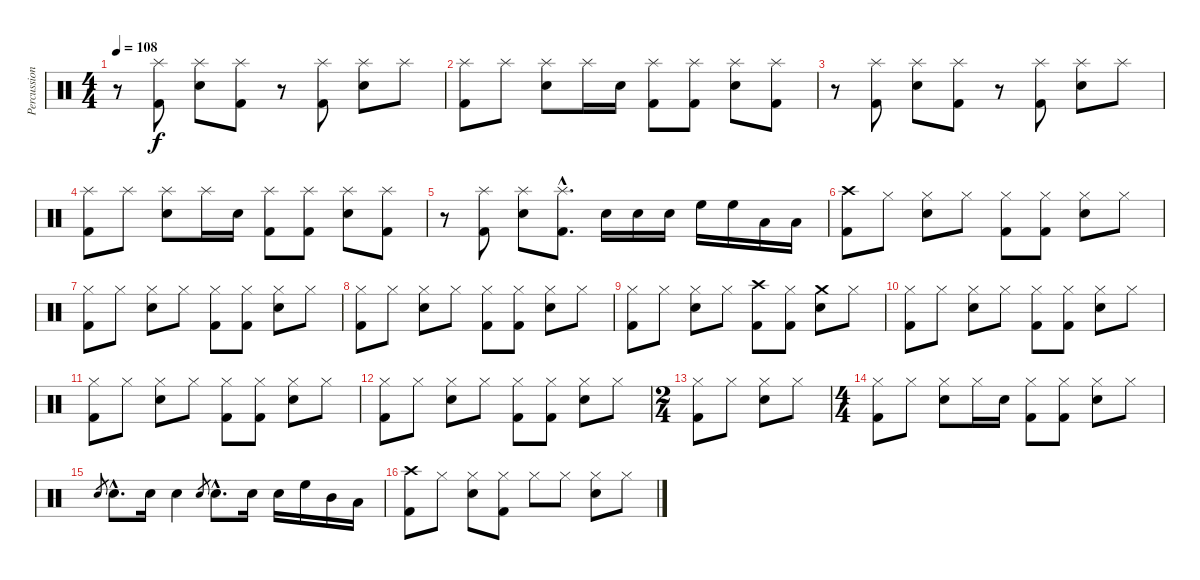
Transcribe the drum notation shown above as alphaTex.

\track ("Percussion" "Percussion") {instrument percussion}
\staff {score}
\articulation defaults
\ts (4 4)
\tempo 108
\clef neutral
\ks c
r.8{dy f} ("Kick (hit) 2" "Splash (hit)").8 ("Snare (hit) 2" "Splash (hit)").8 ("Kick (hit) 2" "Splash (hit)").8 r.8 ("Kick (hit) 2" "Splash (hit)").8 ("Snare (hit) 2" "Splash (hit)").8 "Splash (hit)".8 |
("Kick (hit) 2" "Splash (hit)").8 "Splash (hit)".8 ("Snare (hit) 2" "Splash (hit)").8 "Splash (hit)".16 "Snare (hit) 2".16 ("Kick (hit) 2" "Splash (hit)").8 ("Kick (hit) 2" "Splash (hit)").8 ("Snare (hit) 2" "Splash (hit)").8 ("Kick (hit) 2" "Splash (hit)").8 |
r.8 ("Kick (hit) 2" "Splash (hit)").8 ("Snare (hit) 2" "Splash (hit)").8 ("Kick (hit) 2" "Splash (hit)").8 r.8 ("Kick (hit) 2" "Splash (hit)").8 ("Snare (hit) 2" "Splash (hit)").8 "Splash (hit)".8 |
("Kick (hit) 2" "Splash (hit)").8 "Splash (hit)".8 ("Snare (hit) 2" "Splash (hit)").8 "Splash (hit)".16 "Snare (hit) 2".16 ("Kick (hit) 2" "Splash (hit)").8 ("Kick (hit) 2" "Splash (hit)").8 ("Snare (hit) 2" "Splash (hit)").8 ("Kick (hit) 2" "Splash (hit)").8 |
r.8 ("Kick (hit) 2" "Splash (hit)").8 ("Snare (hit) 2" "Splash (hit)").8 ("Kick (hit) 2"{hac} "Splash (hit)"{hac}).8{d} "Snare (hit) 2".16 "Snare (hit) 2".16 "Snare (hit) 2".16 "High Floor Tom (hit)".16 "High Floor Tom (hit)".16 "Low Tom (hit)".16 "Low Tom (hit)".16 |
("Kick (hit) 2" "Crash high (hit)").8 "Hi-Hat (closed)".8 ("Snare (hit) 2" "Hi-Hat (closed)").8 "Hi-Hat (closed)".8 ("Kick (hit) 2" "Hi-Hat (closed)").8 ("Kick (hit) 2" "Hi-Hat (closed)").8 ("Snare (hit) 2" "Hi-Hat (closed)").8 "Hi-Hat (closed)".8 |
("Kick (hit) 2" "Hi-Hat (closed)").8 "Hi-Hat (closed)".8 ("Snare (hit) 2" "Hi-Hat (closed)").8 "Hi-Hat (closed)".8 ("Kick (hit) 2" "Hi-Hat (closed)").8 ("Kick (hit) 2" "Hi-Hat (closed)").8 ("Snare (hit) 2" "Hi-Hat (closed)").8 "Hi-Hat (closed)".8 |
("Kick (hit) 2" "Hi-Hat (closed)").8 "Hi-Hat (closed)".8 ("Snare (hit) 2" "Hi-Hat (closed)").8 "Hi-Hat (closed)".8 ("Kick (hit) 2" "Hi-Hat (closed)").8 ("Kick (hit) 2" "Hi-Hat (closed)").8 ("Snare (hit) 2" "Hi-Hat (closed)").8 "Hi-Hat (closed)".8 |
("Kick (hit) 2" "Hi-Hat (closed)").8 "Hi-Hat (closed)".8 ("Snare (hit) 2" "Hi-Hat (closed)").8 "Hi-Hat (closed)".8 ("Kick (hit) 2" "Crash high (hit)").8 ("Kick (hit) 2" "Hi-Hat (closed)").8 ("Snare (hit) 2" "Crash medium (hit)").8 "Hi-Hat (closed)".8 |
("Kick (hit) 2" "Hi-Hat (closed)").8 "Hi-Hat (closed)".8 ("Snare (hit) 2" "Hi-Hat (closed)").8 "Hi-Hat (closed)".8 ("Kick (hit) 2" "Hi-Hat (closed)").8 ("Kick (hit) 2" "Hi-Hat (closed)").8 ("Snare (hit) 2" "Hi-Hat (closed)").8 "Hi-Hat (closed)".8 |
("Kick (hit) 2" "Hi-Hat (closed)").8 "Hi-Hat (closed)".8 ("Snare (hit) 2" "Hi-Hat (closed)").8 "Hi-Hat (closed)".8 ("Kick (hit) 2" "Hi-Hat (closed)").8 ("Kick (hit) 2" "Hi-Hat (closed)").8 ("Snare (hit) 2" "Hi-Hat (closed)").8 "Hi-Hat (closed)".8 |
("Kick (hit) 2" "Hi-Hat (closed)").8 "Hi-Hat (closed)".8 ("Snare (hit) 2" "Hi-Hat (closed)").8 "Hi-Hat (closed)".8 ("Kick (hit) 2" "Hi-Hat (closed)").8 ("Kick (hit) 2" "Hi-Hat (closed)").8 ("Snare (hit) 2" "Hi-Hat (closed)").8 "Hi-Hat (closed)".8 |
\ts (2 4)
("Kick (hit) 2" "Hi-Hat (closed)").8 "Hi-Hat (closed)".8 ("Snare (hit) 2" "Hi-Hat (closed)").8 "Hi-Hat (closed)".8 |
\ts (4 4)
("Kick (hit) 2" "Hi-Hat (closed)").8 "Hi-Hat (closed)".8 ("Snare (hit) 2" "Hi-Hat (closed)").8 "Hi-Hat (closed)".16 "Snare (hit) 2".16 ("Kick (hit) 2" "Hi-Hat (closed)").8 ("Kick (hit) 2" "Hi-Hat (closed)").8 ("Snare (hit) 2" "Hi-Hat (closed)").8 "Hi-Hat (closed)".8 |
"Snare (hit) 2".8{gr} "Snare (hit) 2"{hac}.8{d} "Snare (hit) 2".16 "Snare (hit) 2".4 "Snare (hit) 2".8{gr} "Snare (hit) 2"{hac}.8{d} "Snare (hit) 2".16 "Snare (hit) 2".16 "High Floor Tom (hit)".16 "Mid Tom (hit)".16 "Low Tom (hit)".16 |
("Kick (hit) 2" "Crash high (hit)").8 "Hi-Hat (closed)".8 ("Snare (hit) 2" "Hi-Hat (closed)").8 ("Kick (hit) 2" "Hi-Hat (closed)").8 "Hi-Hat (closed)".8 "Hi-Hat (closed)".8 ("Snare (hit) 2" "Hi-Hat (closed)").8 "Hi-Hat (closed)".8
